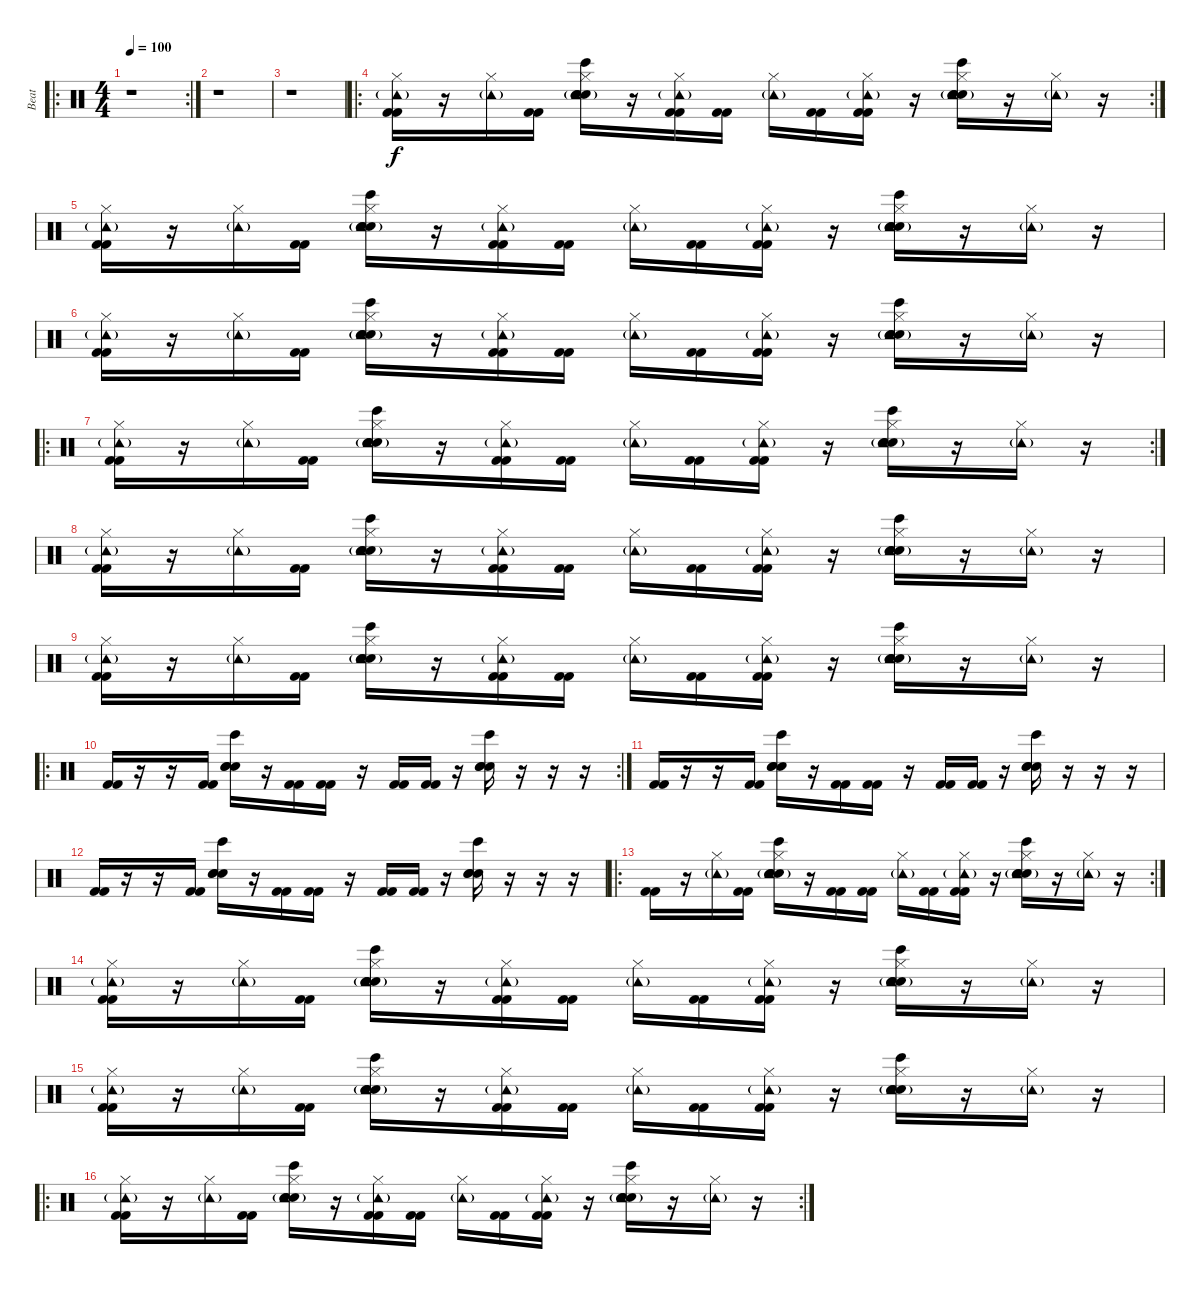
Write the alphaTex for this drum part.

\track ("Beat" "Beat") {instrument percussion}
\staff {score}
\articulation defaults
\ro
\rc 2
\ts (4 4)
\tempo 100
\clef neutral
\ks c
r.1{dy f} |
r.1 |
r.1 |
\ro
\rc 2
("Hi-Hat (closed)" "Tambourine (hit)"{g} "Kick (hit) 2" "Kick (hit) 2").16 r.16 ("Hi-Hat (closed)" "Tambourine (hit)"{g}).16 ("Kick (hit) 2" "Kick (hit) 2").16 ("Electric Snare (hit)" "Hi-Hat (closed)" "Tambourine (hit)"{g} "Hand Clap (hit)" "Bongo High (hit)" "Hand Clap (hit)").16 r.16 ("Hi-Hat (closed)" "Tambourine (hit)"{g} "Kick (hit) 2" "Kick (hit) 2").16 ("Kick (hit) 2" "Kick (hit) 2").16 ("Hi-Hat (closed)" "Tambourine (hit)"{g}).16 ("Kick (hit) 2" "Kick (hit) 2").16 ("Hi-Hat (closed)" "Tambourine (hit)"{g} "Kick (hit) 2" "Kick (hit) 2").16 r.16 ("Electric Snare (hit)" "Hi-Hat (closed)" "Tambourine (hit)"{g} "Hand Clap (hit)" "Bongo High (hit)" "Hand Clap (hit)").16 r.16 ("Hi-Hat (closed)" "Tambourine (hit)"{g}).16 r.16 |
("Hi-Hat (closed)" "Tambourine (hit)"{g} "Kick (hit) 2" "Kick (hit) 2").16 r.16 ("Hi-Hat (closed)" "Tambourine (hit)"{g}).16 ("Kick (hit) 2" "Kick (hit) 2").16 ("Electric Snare (hit)" "Hi-Hat (closed)" "Tambourine (hit)"{g} "Hand Clap (hit)" "Bongo High (hit)" "Hand Clap (hit)").16 r.16 ("Hi-Hat (closed)" "Tambourine (hit)"{g} "Kick (hit) 2" "Kick (hit) 2").16 ("Kick (hit) 2" "Kick (hit) 2").16 ("Hi-Hat (closed)" "Tambourine (hit)"{g}).16 ("Kick (hit) 2" "Kick (hit) 2").16 ("Hi-Hat (closed)" "Tambourine (hit)"{g} "Kick (hit) 2" "Kick (hit) 2").16 r.16 ("Electric Snare (hit)" "Hi-Hat (closed)" "Tambourine (hit)"{g} "Hand Clap (hit)" "Bongo High (hit)" "Hand Clap (hit)").16 r.16 ("Hi-Hat (closed)" "Tambourine (hit)"{g}).16 r.16 |
("Hi-Hat (closed)" "Tambourine (hit)"{g} "Kick (hit) 2" "Kick (hit) 2").16 r.16 ("Hi-Hat (closed)" "Tambourine (hit)"{g}).16 ("Kick (hit) 2" "Kick (hit) 2").16 ("Electric Snare (hit)" "Hi-Hat (closed)" "Tambourine (hit)"{g} "Hand Clap (hit)" "Bongo High (hit)" "Hand Clap (hit)").16 r.16 ("Hi-Hat (closed)" "Tambourine (hit)"{g} "Kick (hit) 2" "Kick (hit) 2").16 ("Kick (hit) 2" "Kick (hit) 2").16 ("Hi-Hat (closed)" "Tambourine (hit)"{g}).16 ("Kick (hit) 2" "Kick (hit) 2").16 ("Hi-Hat (closed)" "Tambourine (hit)"{g} "Kick (hit) 2" "Kick (hit) 2").16 r.16 ("Electric Snare (hit)" "Hi-Hat (closed)" "Tambourine (hit)"{g} "Hand Clap (hit)" "Bongo High (hit)" "Hand Clap (hit)").16 r.16 ("Hi-Hat (closed)" "Tambourine (hit)"{g}).16 r.16 |
\ro
\rc 2
("Hi-Hat (closed)" "Tambourine (hit)"{g} "Kick (hit) 2" "Kick (hit) 2").16 r.16 ("Hi-Hat (closed)" "Tambourine (hit)"{g}).16 ("Kick (hit) 2" "Kick (hit) 2").16 ("Electric Snare (hit)" "Hi-Hat (closed)" "Tambourine (hit)"{g} "Hand Clap (hit)" "Bongo High (hit)" "Hand Clap (hit)").16 r.16 ("Hi-Hat (closed)" "Tambourine (hit)"{g} "Kick (hit) 2" "Kick (hit) 2").16 ("Kick (hit) 2" "Kick (hit) 2").16 ("Hi-Hat (closed)" "Tambourine (hit)"{g}).16 ("Kick (hit) 2" "Kick (hit) 2").16 ("Hi-Hat (closed)" "Tambourine (hit)"{g} "Kick (hit) 2" "Kick (hit) 2").16 r.16 ("Electric Snare (hit)" "Hi-Hat (closed)" "Tambourine (hit)"{g} "Hand Clap (hit)" "Bongo High (hit)" "Hand Clap (hit)").16 r.16 ("Hi-Hat (closed)" "Tambourine (hit)"{g}).16 r.16 |
("Hi-Hat (closed)" "Tambourine (hit)"{g} "Kick (hit) 2" "Kick (hit) 2").16 r.16 ("Hi-Hat (closed)" "Tambourine (hit)"{g}).16 ("Kick (hit) 2" "Kick (hit) 2").16 ("Electric Snare (hit)" "Hi-Hat (closed)" "Tambourine (hit)"{g} "Hand Clap (hit)" "Bongo High (hit)" "Hand Clap (hit)").16 r.16 ("Hi-Hat (closed)" "Tambourine (hit)"{g} "Kick (hit) 2" "Kick (hit) 2").16 ("Kick (hit) 2" "Kick (hit) 2").16 ("Hi-Hat (closed)" "Tambourine (hit)"{g}).16 ("Kick (hit) 2" "Kick (hit) 2").16 ("Hi-Hat (closed)" "Tambourine (hit)"{g} "Kick (hit) 2" "Kick (hit) 2").16 r.16 ("Electric Snare (hit)" "Hi-Hat (closed)" "Tambourine (hit)"{g} "Hand Clap (hit)" "Bongo High (hit)" "Hand Clap (hit)").16 r.16 ("Hi-Hat (closed)" "Tambourine (hit)"{g}).16 r.16 |
("Hi-Hat (closed)" "Tambourine (hit)"{g} "Kick (hit) 2" "Kick (hit) 2").16 r.16 ("Hi-Hat (closed)" "Tambourine (hit)"{g}).16 ("Kick (hit) 2" "Kick (hit) 2").16 ("Electric Snare (hit)" "Hi-Hat (closed)" "Tambourine (hit)"{g} "Hand Clap (hit)" "Bongo High (hit)" "Hand Clap (hit)").16 r.16 ("Hi-Hat (closed)" "Tambourine (hit)"{g} "Kick (hit) 2" "Kick (hit) 2").16 ("Kick (hit) 2" "Kick (hit) 2").16 ("Hi-Hat (closed)" "Tambourine (hit)"{g}).16 ("Kick (hit) 2" "Kick (hit) 2").16 ("Hi-Hat (closed)" "Tambourine (hit)"{g} "Kick (hit) 2" "Kick (hit) 2").16 r.16 ("Electric Snare (hit)" "Hi-Hat (closed)" "Tambourine (hit)"{g} "Hand Clap (hit)" "Bongo High (hit)" "Hand Clap (hit)").16 r.16 ("Hi-Hat (closed)" "Tambourine (hit)"{g}).16 r.16 |
\ro
\rc 2
("Kick (hit) 2" "Kick (hit) 2").16 r.16 r.16 ("Kick (hit) 2" "Kick (hit) 2").16 ("Electric Snare (hit)" "Hand Clap (hit)" "Bongo High (hit)" "Hand Clap (hit)").16 r.16 ("Kick (hit) 2" "Kick (hit) 2").16 ("Kick (hit) 2" "Kick (hit) 2").16 r.16 ("Kick (hit) 2" "Kick (hit) 2").16 ("Kick (hit) 2" "Kick (hit) 2").16 r.16 ("Electric Snare (hit)" "Hand Clap (hit)" "Bongo High (hit)" "Hand Clap (hit)").16 r.16 r.16 r.16 |
("Kick (hit) 2" "Kick (hit) 2").16 r.16 r.16 ("Kick (hit) 2" "Kick (hit) 2").16 ("Electric Snare (hit)" "Hand Clap (hit)" "Bongo High (hit)" "Hand Clap (hit)").16 r.16 ("Kick (hit) 2" "Kick (hit) 2").16 ("Kick (hit) 2" "Kick (hit) 2").16 r.16 ("Kick (hit) 2" "Kick (hit) 2").16 ("Kick (hit) 2" "Kick (hit) 2").16 r.16 ("Electric Snare (hit)" "Hand Clap (hit)" "Bongo High (hit)" "Hand Clap (hit)").16 r.16 r.16 r.16 |
("Kick (hit) 2" "Kick (hit) 2").16 r.16 r.16 ("Kick (hit) 2" "Kick (hit) 2").16 ("Electric Snare (hit)" "Hand Clap (hit)" "Bongo High (hit)" "Hand Clap (hit)").16 r.16 ("Kick (hit) 2" "Kick (hit) 2").16 ("Kick (hit) 2" "Kick (hit) 2").16 r.16 ("Kick (hit) 2" "Kick (hit) 2").16 ("Kick (hit) 2" "Kick (hit) 2").16 r.16 ("Electric Snare (hit)" "Hand Clap (hit)" "Bongo High (hit)" "Hand Clap (hit)").16 r.16 r.16 r.16 |
\ro
\rc 2
("Kick (hit) 2" "Kick (hit) 2").16 r.16 ("Hi-Hat (closed)" "Tambourine (hit)"{g}).16 ("Kick (hit) 2" "Kick (hit) 2").16 ("Electric Snare (hit)" "Hi-Hat (closed)" "Tambourine (hit)"{g} "Hand Clap (hit)" "Bongo High (hit)" "Hand Clap (hit)").16 r.16 ("Kick (hit) 2" "Kick (hit) 2").16 ("Kick (hit) 2" "Kick (hit) 2").16 ("Hi-Hat (closed)" "Tambourine (hit)"{g}).16 ("Kick (hit) 2" "Kick (hit) 2").16 ("Hi-Hat (closed)" "Tambourine (hit)"{g} "Kick (hit) 2" "Kick (hit) 2").16 r.16 ("Electric Snare (hit)" "Hi-Hat (closed)" "Tambourine (hit)"{g} "Hand Clap (hit)" "Bongo High (hit)" "Hand Clap (hit)").16 r.16 ("Hi-Hat (closed)" "Tambourine (hit)"{g}).16 r.16 |
("Hi-Hat (closed)" "Tambourine (hit)"{g} "Kick (hit) 2" "Kick (hit) 2").16 r.16 ("Hi-Hat (closed)" "Tambourine (hit)"{g}).16 ("Kick (hit) 2" "Kick (hit) 2").16 ("Electric Snare (hit)" "Hi-Hat (closed)" "Tambourine (hit)"{g} "Hand Clap (hit)" "Bongo High (hit)" "Hand Clap (hit)").16 r.16 ("Hi-Hat (closed)" "Tambourine (hit)"{g} "Kick (hit) 2" "Kick (hit) 2").16 ("Kick (hit) 2" "Kick (hit) 2").16 ("Hi-Hat (closed)" "Tambourine (hit)"{g}).16 ("Kick (hit) 2" "Kick (hit) 2").16 ("Hi-Hat (closed)" "Tambourine (hit)"{g} "Kick (hit) 2" "Kick (hit) 2").16 r.16 ("Electric Snare (hit)" "Hi-Hat (closed)" "Tambourine (hit)"{g} "Hand Clap (hit)" "Bongo High (hit)" "Hand Clap (hit)").16 r.16 ("Hi-Hat (closed)" "Tambourine (hit)"{g}).16 r.16 |
("Hi-Hat (closed)" "Tambourine (hit)"{g} "Kick (hit) 2" "Kick (hit) 2").16 r.16 ("Hi-Hat (closed)" "Tambourine (hit)"{g}).16 ("Kick (hit) 2" "Kick (hit) 2").16 ("Electric Snare (hit)" "Hi-Hat (closed)" "Tambourine (hit)"{g} "Hand Clap (hit)" "Bongo High (hit)" "Hand Clap (hit)").16 r.16 ("Hi-Hat (closed)" "Tambourine (hit)"{g} "Kick (hit) 2" "Kick (hit) 2").16 ("Kick (hit) 2" "Kick (hit) 2").16 ("Hi-Hat (closed)" "Tambourine (hit)"{g}).16 ("Kick (hit) 2" "Kick (hit) 2").16 ("Hi-Hat (closed)" "Tambourine (hit)"{g} "Kick (hit) 2" "Kick (hit) 2").16 r.16 ("Electric Snare (hit)" "Hi-Hat (closed)" "Tambourine (hit)"{g} "Hand Clap (hit)" "Bongo High (hit)" "Hand Clap (hit)").16 r.16 ("Hi-Hat (closed)" "Tambourine (hit)"{g}).16 r.16 |
\ro
\rc 2
("Hi-Hat (closed)" "Tambourine (hit)"{g} "Kick (hit) 2" "Kick (hit) 2").16 r.16 ("Hi-Hat (closed)" "Tambourine (hit)"{g}).16 ("Kick (hit) 2" "Kick (hit) 2").16 ("Electric Snare (hit)" "Hi-Hat (closed)" "Tambourine (hit)"{g} "Hand Clap (hit)" "Bongo High (hit)" "Hand Clap (hit)").16 r.16 ("Hi-Hat (closed)" "Tambourine (hit)"{g} "Kick (hit) 2" "Kick (hit) 2").16 ("Kick (hit) 2" "Kick (hit) 2").16 ("Hi-Hat (closed)" "Tambourine (hit)"{g}).16 ("Kick (hit) 2" "Kick (hit) 2").16 ("Hi-Hat (closed)" "Tambourine (hit)"{g} "Kick (hit) 2" "Kick (hit) 2").16 r.16 ("Electric Snare (hit)" "Hi-Hat (closed)" "Tambourine (hit)"{g} "Hand Clap (hit)" "Bongo High (hit)" "Hand Clap (hit)").16 r.16 ("Hi-Hat (closed)" "Tambourine (hit)"{g}).16 r.16
